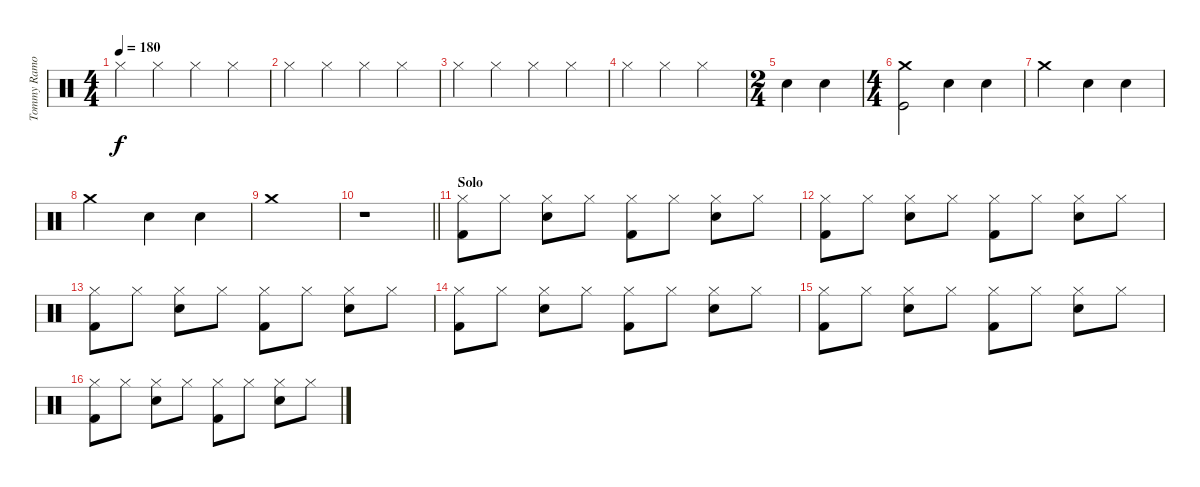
\track ("Tommy Ramone" "Tommy Ramo") {instrument percussion}
\staff {score}
\articulation defaults
\ts (4 4)
\tempo 180
\clef neutral
\ks c "Hi-Hat (closed)".4{dy f} "Hi-Hat (closed)".4 "Hi-Hat (closed)".4 "Hi-Hat (closed)".4
|
"Hi-Hat (closed)".4 "Hi-Hat (closed)".4 "Hi-Hat (closed)".4 "Hi-Hat (closed)".4 |
"Hi-Hat (closed)".4 "Hi-Hat (closed)".4 "Hi-Hat (closed)".4 "Hi-Hat (closed)".4 |
"Hi-Hat (closed)".4 "Hi-Hat (closed)".4 "Hi-Hat (closed)".2 |
\ts (2 4)
"Snare (hit) 2".4 "Snare (hit) 2".4 |
\ts (4 4)
("Crash medium (hit)" "Kick (hit)").2 "Snare (hit) 2".4 "Snare (hit) 2".4 |
"Crash medium (hit)".2 "Snare (hit) 2".4 "Snare (hit) 2".4 |
"Crash medium (hit)".2 "Snare (hit) 2".4 "Snare (hit) 2".4 |
"Crash medium (hit)".1 |
\barLineRight lightlight
r.1 |
\section ("" "Solo")
("Hi-Hat (closed)" "Kick (hit) 2").8 "Hi-Hat (closed)".8 ("Hi-Hat (closed)" "Snare (hit) 2").8 "Hi-Hat (closed)".8 ("Hi-Hat (closed)" "Kick (hit) 2").8 "Hi-Hat (closed)".8 ("Hi-Hat (closed)" "Snare (hit) 2").8 "Hi-Hat (closed)".8 |
("Hi-Hat (closed)" "Kick (hit) 2").8 "Hi-Hat (closed)".8 ("Hi-Hat (closed)" "Snare (hit) 2").8 "Hi-Hat (closed)".8 ("Hi-Hat (closed)" "Kick (hit) 2").8 "Hi-Hat (closed)".8 ("Hi-Hat (closed)" "Snare (hit) 2").8 "Hi-Hat (closed)".8 |
("Hi-Hat (closed)" "Kick (hit) 2").8 "Hi-Hat (closed)".8 ("Hi-Hat (closed)" "Snare (hit) 2").8 "Hi-Hat (closed)".8 ("Hi-Hat (closed)" "Kick (hit) 2").8 "Hi-Hat (closed)".8 ("Hi-Hat (closed)" "Snare (hit) 2").8 "Hi-Hat (closed)".8 |
("Hi-Hat (closed)" "Kick (hit) 2").8 "Hi-Hat (closed)".8 ("Hi-Hat (closed)" "Snare (hit) 2").8 "Hi-Hat (closed)".8 ("Hi-Hat (closed)" "Kick (hit) 2").8 "Hi-Hat (closed)".8 ("Hi-Hat (closed)" "Snare (hit) 2").8 "Hi-Hat (closed)".8 |
("Hi-Hat (closed)" "Kick (hit) 2").8 "Hi-Hat (closed)".8 ("Hi-Hat (closed)" "Snare (hit) 2").8 "Hi-Hat (closed)".8 ("Hi-Hat (closed)" "Kick (hit) 2").8 "Hi-Hat (closed)".8 ("Hi-Hat (closed)" "Snare (hit) 2").8 "Hi-Hat (closed)".8 |
("Hi-Hat (closed)" "Kick (hit) 2").8 "Hi-Hat (closed)".8 ("Hi-Hat (closed)" "Snare (hit) 2").8 "Hi-Hat (closed)".8 ("Hi-Hat (closed)" "Kick (hit) 2").8 "Hi-Hat (closed)".8 ("Hi-Hat (closed)" "Snare (hit) 2").8 "Hi-Hat (closed)".8
